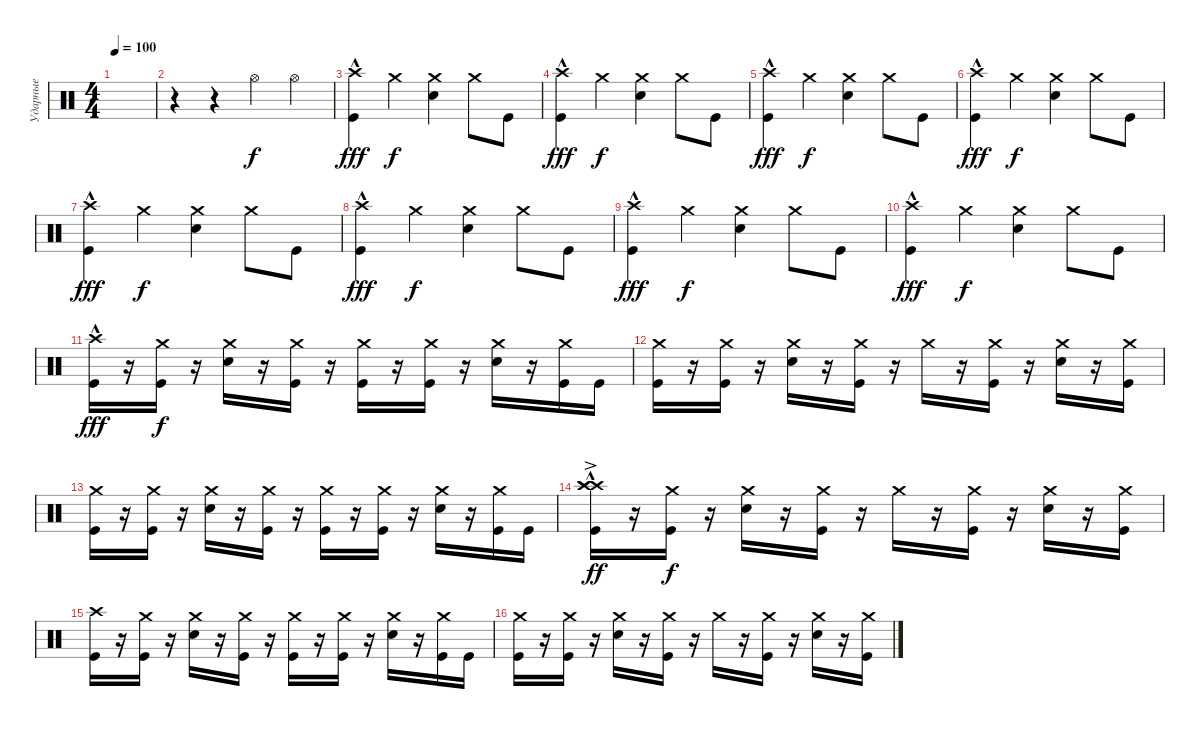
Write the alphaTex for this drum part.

\track ("Ударные" "Ударные") {instrument percussion}
\staff {score}
\articulation defaults
\ts (4 4)
\tempo 100
\clef neutral
\ks c
|
r.4 r.4 "Hi-Hat (open)".4{dy f} "Hi-Hat (open)".4 |
("Crash high (hit)"{hac} "Kick (hit)"{hac}).4{dy fff} "Crash medium (hit)".4{dy f} ("Crash medium (hit)" "Electric Snare (hit)").4 "Crash medium (hit)".8 "Kick (hit)".8 |
("Crash high (hit)"{hac} "Kick (hit)"{hac}).4{dy fff} "Crash medium (hit)".4{dy f} ("Crash medium (hit)" "Electric Snare (hit)").4 "Crash medium (hit)".8 "Kick (hit)".8 |
("Crash high (hit)"{hac} "Kick (hit)"{hac}).4{dy fff} "Crash medium (hit)".4{dy f} ("Crash medium (hit)" "Electric Snare (hit)").4 "Crash medium (hit)".8 "Kick (hit)".8 |
("Crash high (hit)"{hac} "Kick (hit)"{hac}).4{dy fff} "Crash medium (hit)".4{dy f} ("Crash medium (hit)" "Electric Snare (hit)").4 "Crash medium (hit)".8 "Kick (hit)".8 |
("Crash high (hit)"{hac} "Kick (hit)"{hac}).4{dy fff} "Crash medium (hit)".4{dy f} ("Crash medium (hit)" "Electric Snare (hit)").4 "Crash medium (hit)".8 "Kick (hit)".8 |
("Crash high (hit)"{hac} "Kick (hit)"{hac}).4{dy fff} "Crash medium (hit)".4{dy f} ("Crash medium (hit)" "Electric Snare (hit)").4 "Crash medium (hit)".8 "Kick (hit)".8 |
("Crash high (hit)"{hac} "Kick (hit)"{hac}).4{dy fff} "Crash medium (hit)".4{dy f} ("Crash medium (hit)" "Electric Snare (hit)").4 "Crash medium (hit)".8 "Kick (hit)".8 |
("Crash high (hit)"{hac} "Kick (hit)"{hac}).4{dy fff} "Crash medium (hit)".4{dy f} ("Crash medium (hit)" "Electric Snare (hit)").4 "Crash medium (hit)".8 "Kick (hit)".8 |
("Crash high (hit)"{hac} "Kick (hit)").16{dy fff} r.16 ("Crash medium (hit)" "Kick (hit)").16{dy f} r.16 ("Crash medium (hit)" "Electric Snare (hit)").16 r.16 ("Crash medium (hit)" "Kick (hit)").16 r.16 ("Crash medium (hit)" "Kick (hit)").16 r.16 ("Crash medium (hit)" "Kick (hit)").16 r.16 ("Crash medium (hit)" "Electric Snare (hit)").16 r.16 ("Crash medium (hit)" "Kick (hit)").16 "Kick (hit)".16 |
("Crash medium (hit)" "Kick (hit)").16 r.16 ("Crash medium (hit)" "Kick (hit)").16 r.16 ("Crash medium (hit)" "Electric Snare (hit)").16 r.16 ("Crash medium (hit)" "Kick (hit)").16 r.16 "Crash medium (hit)".16 r.16 ("Crash medium (hit)" "Kick (hit)").16 r.16 ("Crash medium (hit)" "Electric Snare (hit)").16 r.16 ("Crash medium (hit)" "Kick (hit)").16 |
("Crash medium (hit)" "Kick (hit)").16 r.16 ("Crash medium (hit)" "Kick (hit)").16 r.16 ("Crash medium (hit)" "Electric Snare (hit)").16 r.16 ("Crash medium (hit)" "Kick (hit)").16 r.16 ("Crash medium (hit)" "Kick (hit)").16 r.16 ("Crash medium (hit)" "Kick (hit)").16 r.16 ("Crash medium (hit)" "Electric Snare (hit)").16 r.16 ("Crash medium (hit)" "Kick (hit)").16 "Kick (hit)".16 |
("Crash high (hit)"{hac} "Crash high (hit)" "Crash high (hit)"{ac} "Kick (hit)").16{dy ff} r.16 ("Crash medium (hit)" "Kick (hit)").16{dy f} r.16 ("Crash medium (hit)" "Electric Snare (hit)").16 r.16 ("Crash medium (hit)" "Kick (hit)").16 r.16 "Crash medium (hit)".16 r.16 ("Crash medium (hit)" "Kick (hit)").16 r.16 ("Crash medium (hit)" "Electric Snare (hit)").16 r.16 ("Crash medium (hit)" "Kick (hit)").16 |
("Crash high (hit)" "Kick (hit)").16 r.16 ("Crash medium (hit)" "Kick (hit)").16 r.16 ("Crash medium (hit)" "Electric Snare (hit)").16 r.16 ("Crash medium (hit)" "Kick (hit)").16 r.16 ("Crash medium (hit)" "Kick (hit)").16 r.16 ("Crash medium (hit)" "Kick (hit)").16 r.16 ("Crash medium (hit)" "Electric Snare (hit)").16 r.16 ("Crash medium (hit)" "Kick (hit)").16 "Kick (hit)".16 |
("Crash medium (hit)" "Kick (hit)").16 r.16 ("Crash medium (hit)" "Kick (hit)").16 r.16 ("Crash medium (hit)" "Electric Snare (hit)").16 r.16 ("Crash medium (hit)" "Kick (hit)").16 r.16 "Crash medium (hit)".16 r.16 ("Crash medium (hit)" "Kick (hit)").16 r.16 ("Crash medium (hit)" "Electric Snare (hit)").16 r.16 ("Crash medium (hit)" "Kick (hit)").16
